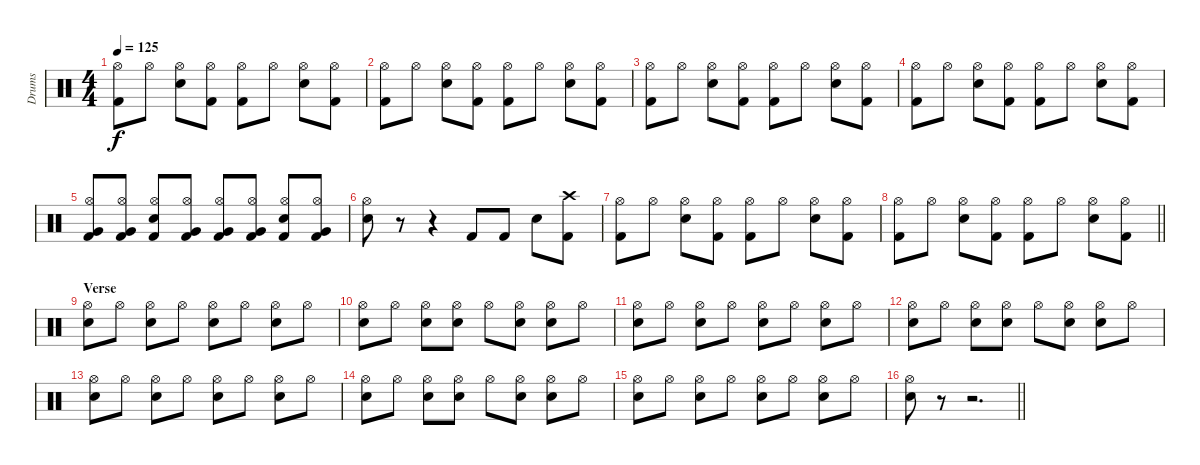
\track ("Drums" "Drums") {instrument percussion}
\staff {score}
\articulation defaults
\ts (4 4)
\tempo 125
\clef neutral
\ks c
("Kick (hit) 2" "Hi-Hat (open)").8{dy f} "Hi-Hat (open)".8 ("Electric Snare (hit)" "Hi-Hat (open)").8 ("Kick (hit) 2" "Hi-Hat (open)").8 ("Kick (hit) 2" "Hi-Hat (open)").8 "Hi-Hat (open)".8 ("Electric Snare (hit)" "Hi-Hat (open)").8 ("Kick (hit) 2" "Hi-Hat (open)").8 |
("Kick (hit) 2" "Hi-Hat (open)").8 "Hi-Hat (open)".8 ("Electric Snare (hit)" "Hi-Hat (open)").8 ("Kick (hit) 2" "Hi-Hat (open)").8 ("Kick (hit) 2" "Hi-Hat (open)").8 "Hi-Hat (open)".8 ("Electric Snare (hit)" "Hi-Hat (open)").8 ("Kick (hit) 2" "Hi-Hat (open)").8 |
("Kick (hit) 2" "Hi-Hat (open)").8 "Hi-Hat (open)".8 ("Electric Snare (hit)" "Hi-Hat (open)").8 ("Kick (hit) 2" "Hi-Hat (open)").8 ("Kick (hit) 2" "Hi-Hat (open)").8 "Hi-Hat (open)".8 ("Electric Snare (hit)" "Hi-Hat (open)").8 ("Kick (hit) 2" "Hi-Hat (open)").8 |
("Kick (hit) 2" "Hi-Hat (open)").8 "Hi-Hat (open)".8 ("Electric Snare (hit)" "Hi-Hat (open)").8 ("Kick (hit) 2" "Hi-Hat (open)").8 ("Kick (hit) 2" "Hi-Hat (open)").8 "Hi-Hat (open)".8 ("Electric Snare (hit)" "Hi-Hat (open)").8 ("Kick (hit) 2" "Hi-Hat (open)").8 |
("Very Low Tom (hit)" "Kick (hit) 2" "Hi-Hat (open)").8 ("Very Low Tom (hit)" "Kick (hit) 2" "Hi-Hat (open)").8 ("Electric Snare (hit)" "Kick (hit) 2" "Hi-Hat (open)").8 ("Very Low Tom (hit)" "Kick (hit) 2" "Hi-Hat (open)").8 ("Very Low Tom (hit)" "Kick (hit) 2" "Hi-Hat (open)").8 ("Very Low Tom (hit)" "Kick (hit) 2" "Hi-Hat (open)").8 ("Electric Snare (hit)" "Kick (hit) 2" "Hi-Hat (open)").8 ("Very Low Tom (hit)" "Kick (hit) 2" "Hi-Hat (open)").8 |
("Electric Snare (hit)" "Hi-Hat (open)").8 r.8 r.4 "Kick (hit) 2".8 "Kick (hit) 2".8 "Electric Snare (hit)".8 ("Kick (hit) 2" "Crash high (hit)").8 |
("Kick (hit) 2" "Hi-Hat (open)").8 "Hi-Hat (open)".8 ("Electric Snare (hit)" "Hi-Hat (open)").8 ("Kick (hit) 2" "Hi-Hat (open)").8 ("Kick (hit) 2" "Hi-Hat (open)").8 "Hi-Hat (open)".8 ("Electric Snare (hit)" "Hi-Hat (open)").8 ("Kick (hit) 2" "Hi-Hat (open)").8 |
\barLineRight lightlight
("Kick (hit) 2" "Hi-Hat (open)").8 "Hi-Hat (open)".8 ("Electric Snare (hit)" "Hi-Hat (open)").8 ("Kick (hit) 2" "Hi-Hat (open)").8 ("Kick (hit) 2" "Hi-Hat (open)").8 "Hi-Hat (open)".8 ("Electric Snare (hit)" "Hi-Hat (open)").8 ("Kick (hit) 2" "Hi-Hat (open)").8 |
\section ("" "Verse")
("Electric Snare (hit)" "Hi-Hat (open)").8 "Hi-Hat (open)".8 ("Electric Snare (hit)" "Hi-Hat (open)").8 "Hi-Hat (open)".8 ("Electric Snare (hit)" "Hi-Hat (open)").8 "Hi-Hat (open)".8 ("Electric Snare (hit)" "Hi-Hat (open)").8 "Hi-Hat (open)".8 |
("Electric Snare (hit)" "Hi-Hat (open)").8 "Hi-Hat (open)".8 ("Electric Snare (hit)" "Hi-Hat (open)").8 ("Electric Snare (hit)" "Hi-Hat (open)").8 "Hi-Hat (open)".8 ("Electric Snare (hit)" "Hi-Hat (open)").8 ("Electric Snare (hit)" "Hi-Hat (open)").8 "Hi-Hat (open)".8 |
("Electric Snare (hit)" "Hi-Hat (open)").8 "Hi-Hat (open)".8 ("Electric Snare (hit)" "Hi-Hat (open)").8 "Hi-Hat (open)".8 ("Electric Snare (hit)" "Hi-Hat (open)").8 "Hi-Hat (open)".8 ("Electric Snare (hit)" "Hi-Hat (open)").8 "Hi-Hat (open)".8 |
("Electric Snare (hit)" "Hi-Hat (open)").8 "Hi-Hat (open)".8 ("Electric Snare (hit)" "Hi-Hat (open)").8 ("Electric Snare (hit)" "Hi-Hat (open)").8 "Hi-Hat (open)".8 ("Electric Snare (hit)" "Hi-Hat (open)").8 ("Electric Snare (hit)" "Hi-Hat (open)").8 "Hi-Hat (open)".8 |
("Electric Snare (hit)" "Hi-Hat (open)").8 "Hi-Hat (open)".8 ("Electric Snare (hit)" "Hi-Hat (open)").8 "Hi-Hat (open)".8 ("Electric Snare (hit)" "Hi-Hat (open)").8 "Hi-Hat (open)".8 ("Electric Snare (hit)" "Hi-Hat (open)").8 "Hi-Hat (open)".8 |
("Electric Snare (hit)" "Hi-Hat (open)").8 "Hi-Hat (open)".8 ("Electric Snare (hit)" "Hi-Hat (open)").8 ("Electric Snare (hit)" "Hi-Hat (open)").8 "Hi-Hat (open)".8 ("Electric Snare (hit)" "Hi-Hat (open)").8 ("Electric Snare (hit)" "Hi-Hat (open)").8 "Hi-Hat (open)".8 |
("Electric Snare (hit)" "Hi-Hat (open)").8 "Hi-Hat (open)".8 ("Electric Snare (hit)" "Hi-Hat (open)").8 "Hi-Hat (open)".8 ("Electric Snare (hit)" "Hi-Hat (open)").8 "Hi-Hat (open)".8 ("Electric Snare (hit)" "Hi-Hat (open)").8 "Hi-Hat (open)".8 |
\barLineRight lightlight
("Electric Snare (hit)" "Hi-Hat (open)").8 r.8 r.2{d}
